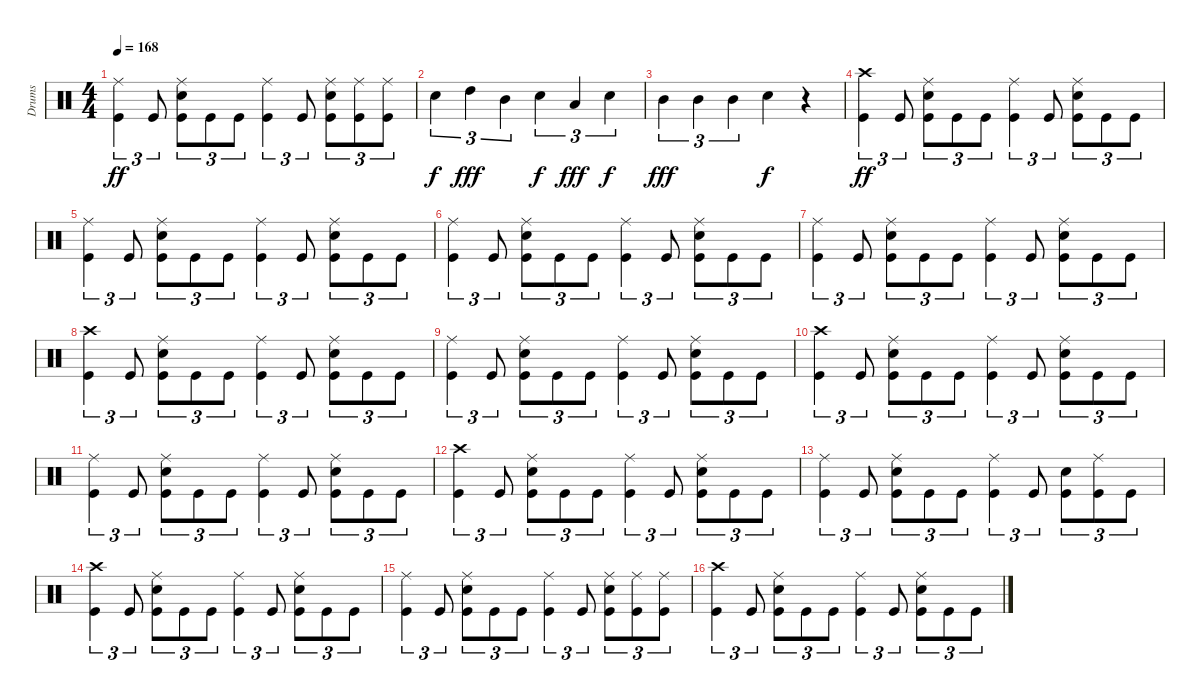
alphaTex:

\track ("Drums" "Drums") {instrument percussion}
\staff {score}
\articulation defaults
\ts (4 4)
\tempo 168
\clef neutral
\ks c
("Ride (middle)" "Kick (hit)").4{tu (3 2) dy ff} "Kick (hit)".8{tu (3 2)} ("Ride (middle)" "Electric Snare (hit)" "Kick (hit)").8{tu (3 2)} "Kick (hit)".8{tu (3 2)} "Kick (hit)".8{tu (3 2)} ("Ride (middle)" "Kick (hit)").4{tu (3 2)} "Kick (hit)".8{tu (3 2)} ("Ride (middle)" "Electric Snare (hit)" "Kick (hit)").8{tu (3 2)} ("Ride (middle)" "Kick (hit)").8{tu (3 2)} ("Ride (middle)" "Kick (hit)").8{tu (3 2)} |
"Electric Snare (hit)".4{tu (3 2) dy f} "High Tom (hit)".4{tu (3 2) dy fff} "Mid Tom (hit)".4{tu (3 2)} "Electric Snare (hit)".4{tu (3 2) dy f} "Low Tom (hit)".4{tu (3 2) dy fff} "Electric Snare (hit)".4{tu (3 2) dy f} |
"Mid Tom (hit)".4{tu (3 2) dy fff} "Mid Tom (hit)".4{tu (3 2)} "Mid Tom (hit)".4{tu (3 2)} "Electric Snare (hit)".4{dy f} r.4 |
("Crash high (hit)" "Kick (hit)").4{tu (3 2) dy ff} "Kick (hit)".8{tu (3 2)} ("Ride (middle)" "Electric Snare (hit)" "Kick (hit)").8{tu (3 2)} "Kick (hit)".8{tu (3 2)} "Kick (hit)".8{tu (3 2)} ("Ride (middle)" "Kick (hit)").4{tu (3 2)} "Kick (hit)".8{tu (3 2)} ("Ride (middle)" "Electric Snare (hit)" "Kick (hit)").8{tu (3 2)} "Kick (hit)".8{tu (3 2)} "Kick (hit)".8{tu (3 2)} |
("Ride (middle)" "Kick (hit)").4{tu (3 2)} "Kick (hit)".8{tu (3 2)} ("Ride (middle)" "Electric Snare (hit)" "Kick (hit)").8{tu (3 2)} "Kick (hit)".8{tu (3 2)} "Kick (hit)".8{tu (3 2)} ("Ride (middle)" "Kick (hit)").4{tu (3 2)} "Kick (hit)".8{tu (3 2)} ("Ride (middle)" "Electric Snare (hit)" "Kick (hit)").8{tu (3 2)} "Kick (hit)".8{tu (3 2)} "Kick (hit)".8{tu (3 2)} |
("Ride (middle)" "Kick (hit)").4{tu (3 2)} "Kick (hit)".8{tu (3 2)} ("Ride (middle)" "Electric Snare (hit)" "Kick (hit)").8{tu (3 2)} "Kick (hit)".8{tu (3 2)} "Kick (hit)".8{tu (3 2)} ("Ride (middle)" "Kick (hit)").4{tu (3 2)} "Kick (hit)".8{tu (3 2)} ("Ride (middle)" "Electric Snare (hit)" "Kick (hit)").8{tu (3 2)} "Kick (hit)".8{tu (3 2)} "Kick (hit)".8{tu (3 2)} |
("Ride (middle)" "Kick (hit)").4{tu (3 2)} "Kick (hit)".8{tu (3 2)} ("Ride (middle)" "Electric Snare (hit)" "Kick (hit)").8{tu (3 2)} "Kick (hit)".8{tu (3 2)} "Kick (hit)".8{tu (3 2)} ("Ride (middle)" "Kick (hit)").4{tu (3 2)} "Kick (hit)".8{tu (3 2)} ("Ride (middle)" "Electric Snare (hit)" "Kick (hit)").8{tu (3 2)} "Kick (hit)".8{tu (3 2)} "Kick (hit)".8{tu (3 2)} |
("Crash high (hit)" "Kick (hit)").4{tu (3 2)} "Kick (hit)".8{tu (3 2)} ("Ride (middle)" "Electric Snare (hit)" "Kick (hit)").8{tu (3 2)} "Kick (hit)".8{tu (3 2)} "Kick (hit)".8{tu (3 2)} ("Ride (middle)" "Kick (hit)").4{tu (3 2)} "Kick (hit)".8{tu (3 2)} ("Ride (middle)" "Electric Snare (hit)" "Kick (hit)").8{tu (3 2)} "Kick (hit)".8{tu (3 2)} "Kick (hit)".8{tu (3 2)} |
("Ride (middle)" "Kick (hit)").4{tu (3 2)} "Kick (hit)".8{tu (3 2)} ("Ride (middle)" "Electric Snare (hit)" "Kick (hit)").8{tu (3 2)} "Kick (hit)".8{tu (3 2)} "Kick (hit)".8{tu (3 2)} ("Ride (middle)" "Kick (hit)").4{tu (3 2)} "Kick (hit)".8{tu (3 2)} ("Ride (middle)" "Electric Snare (hit)" "Kick (hit)").8{tu (3 2)} "Kick (hit)".8{tu (3 2)} "Kick (hit)".8{tu (3 2)} |
("Crash high (hit)" "Kick (hit)").4{tu (3 2)} "Kick (hit)".8{tu (3 2)} ("Ride (middle)" "Electric Snare (hit)" "Kick (hit)").8{tu (3 2)} "Kick (hit)".8{tu (3 2)} "Kick (hit)".8{tu (3 2)} ("Ride (middle)" "Kick (hit)").4{tu (3 2)} "Kick (hit)".8{tu (3 2)} ("Ride (middle)" "Electric Snare (hit)" "Kick (hit)").8{tu (3 2)} "Kick (hit)".8{tu (3 2)} "Kick (hit)".8{tu (3 2)} |
("Ride (middle)" "Kick (hit)").4{tu (3 2)} "Kick (hit)".8{tu (3 2)} ("Ride (middle)" "Electric Snare (hit)" "Kick (hit)").8{tu (3 2)} "Kick (hit)".8{tu (3 2)} "Kick (hit)".8{tu (3 2)} ("Ride (middle)" "Kick (hit)").4{tu (3 2)} "Kick (hit)".8{tu (3 2)} ("Ride (middle)" "Electric Snare (hit)" "Kick (hit)").8{tu (3 2)} "Kick (hit)".8{tu (3 2)} "Kick (hit)".8{tu (3 2)} |
("Crash high (hit)" "Kick (hit)").4{tu (3 2)} "Kick (hit)".8{tu (3 2)} ("Ride (middle)" "Electric Snare (hit)" "Kick (hit)").8{tu (3 2)} "Kick (hit)".8{tu (3 2)} "Kick (hit)".8{tu (3 2)} ("Ride (middle)" "Kick (hit)").4{tu (3 2)} "Kick (hit)".8{tu (3 2)} ("Ride (middle)" "Electric Snare (hit)" "Kick (hit)").8{tu (3 2)} "Kick (hit)".8{tu (3 2)} "Kick (hit)".8{tu (3 2)} |
("Ride (middle)" "Kick (hit)").4{tu (3 2)} "Kick (hit)".8{tu (3 2)} ("Ride (middle)" "Electric Snare (hit)" "Kick (hit)").8{tu (3 2)} "Kick (hit)".8{tu (3 2)} "Kick (hit)".8{tu (3 2)} ("Ride (middle)" "Kick (hit)").4{tu (3 2)} "Kick (hit)".8{tu (3 2)} ("Electric Snare (hit)" "Kick (hit)").8{tu (3 2)} ("Ride (middle)" "Kick (hit)").8{tu (3 2)} "Kick (hit)".8{tu (3 2)} |
("Crash high (hit)" "Kick (hit)").4{tu (3 2)} "Kick (hit)".8{tu (3 2)} ("Ride (middle)" "Electric Snare (hit)" "Kick (hit)").8{tu (3 2)} "Kick (hit)".8{tu (3 2)} "Kick (hit)".8{tu (3 2)} ("Ride (middle)" "Kick (hit)").4{tu (3 2)} "Kick (hit)".8{tu (3 2)} ("Ride (middle)" "Electric Snare (hit)" "Kick (hit)").8{tu (3 2)} "Kick (hit)".8{tu (3 2)} "Kick (hit)".8{tu (3 2)} |
("Ride (middle)" "Kick (hit)").4{tu (3 2)} "Kick (hit)".8{tu (3 2)} ("Ride (middle)" "Electric Snare (hit)" "Kick (hit)").8{tu (3 2)} "Kick (hit)".8{tu (3 2)} "Kick (hit)".8{tu (3 2)} ("Ride (middle)" "Kick (hit)").4{tu (3 2)} "Kick (hit)".8{tu (3 2)} ("Ride (middle)" "Electric Snare (hit)" "Kick (hit)").8{tu (3 2)} ("Ride (middle)" "Kick (hit)").8{tu (3 2)} ("Ride (middle)" "Kick (hit)").8{tu (3 2)} |
("Crash high (hit)" "Kick (hit)").4{tu (3 2)} "Kick (hit)".8{tu (3 2)} ("Ride (middle)" "Electric Snare (hit)" "Kick (hit)").8{tu (3 2)} "Kick (hit)".8{tu (3 2)} "Kick (hit)".8{tu (3 2)} ("Ride (middle)" "Kick (hit)").4{tu (3 2)} "Kick (hit)".8{tu (3 2)} ("Ride (middle)" "Electric Snare (hit)" "Kick (hit)").8{tu (3 2)} "Kick (hit)".8{tu (3 2)} "Kick (hit)".8{tu (3 2)}
